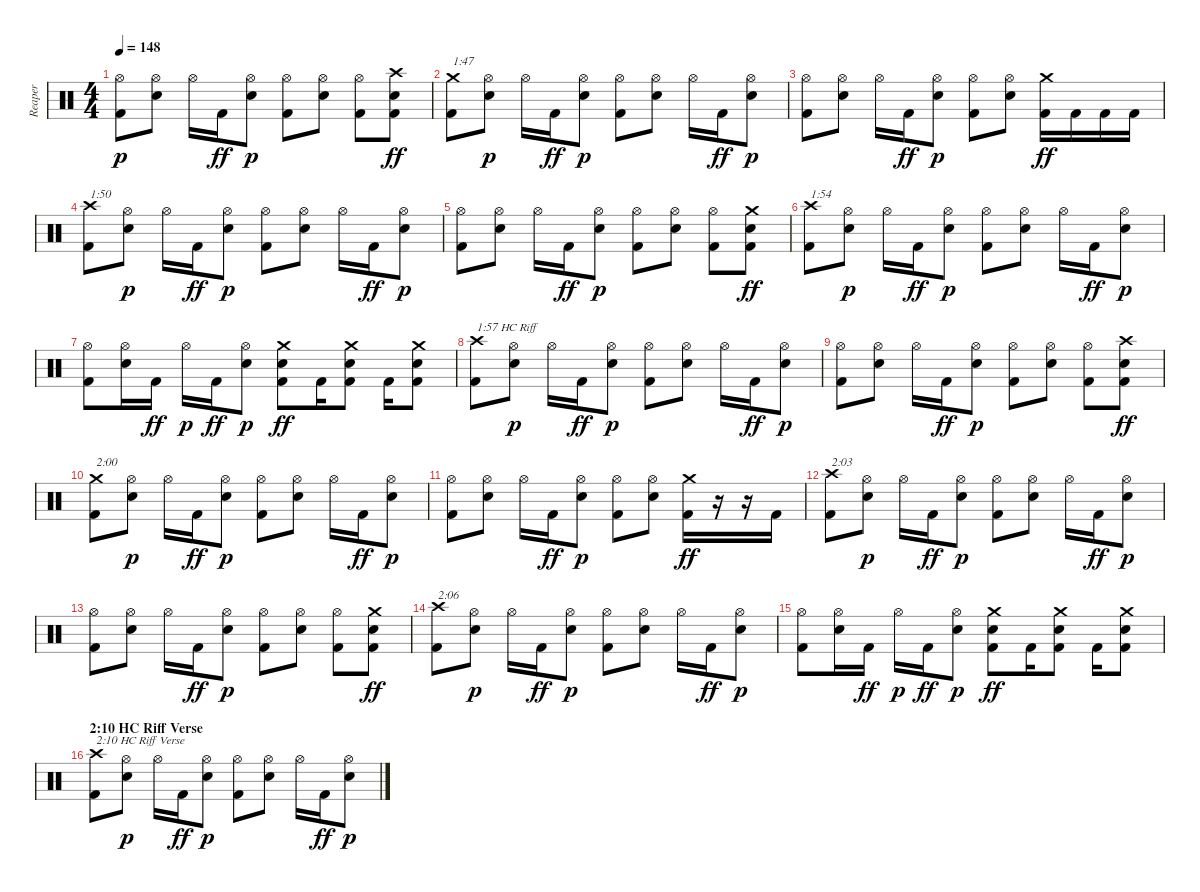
\track ("Reaper" "Reaper") {instrument percussion}
\staff {score}
\articulation defaults
\ts (4 4)
\tempo 148
\clef neutral
\ks c
("Kick (hit) 2" "Hi-Hat (open)").8{dy p} ("Electric Snare (hit)" "Hi-Hat (open)").8 "Hi-Hat (open)".16 "Kick (hit) 2".16{dy ff} ("Electric Snare (hit)" "Hi-Hat (open)").8{dy p} ("Kick (hit) 2" "Hi-Hat (open)").8 ("Electric Snare (hit)" "Hi-Hat (open)").8 ("Kick (hit) 2" "Hi-Hat (open)").8 ("Kick (hit) 2" "Electric Snare (hit)" "Crash high (hit)").8{dy ff} |
("Kick (hit) 2" "Crash medium (hit)").8{txt "1:47"} ("Electric Snare (hit)" "Hi-Hat (open)").8{dy p} "Hi-Hat (open)".16 "Kick (hit) 2".16{dy ff} ("Electric Snare (hit)" "Hi-Hat (open)").8{dy p} ("Kick (hit) 2" "Hi-Hat (open)").8 ("Electric Snare (hit)" "Hi-Hat (open)").8 "Hi-Hat (open)".16 "Kick (hit) 2".16{dy ff} ("Electric Snare (hit)" "Hi-Hat (open)").8{dy p} |
("Kick (hit) 2" "Hi-Hat (open)").8 ("Electric Snare (hit)" "Hi-Hat (open)").8 "Hi-Hat (open)".16 "Kick (hit) 2".16{dy ff} ("Electric Snare (hit)" "Hi-Hat (open)").8{dy p} ("Kick (hit) 2" "Hi-Hat (open)").8 ("Electric Snare (hit)" "Hi-Hat (open)").8 ("Kick (hit) 2" "Crash medium (hit)").16{dy ff} "Kick (hit) 2".16 "Kick (hit) 2".16 "Kick (hit) 2".16 |
("Kick (hit) 2" "Crash high (hit)").8{txt "1:50"} ("Electric Snare (hit)" "Hi-Hat (open)").8{dy p} "Hi-Hat (open)".16 "Kick (hit) 2".16{dy ff} ("Electric Snare (hit)" "Hi-Hat (open)").8{dy p} ("Kick (hit) 2" "Hi-Hat (open)").8 ("Electric Snare (hit)" "Hi-Hat (open)").8 "Hi-Hat (open)".16 "Kick (hit) 2".16{dy ff} ("Electric Snare (hit)" "Hi-Hat (open)").8{dy p} |
("Kick (hit) 2" "Hi-Hat (open)").8 ("Electric Snare (hit)" "Hi-Hat (open)").8 "Hi-Hat (open)".16 "Kick (hit) 2".16{dy ff} ("Electric Snare (hit)" "Hi-Hat (open)").8{dy p} ("Kick (hit) 2" "Hi-Hat (open)").8 ("Electric Snare (hit)" "Hi-Hat (open)").8 ("Kick (hit) 2" "Hi-Hat (open)").8 ("Kick (hit) 2" "Electric Snare (hit)" "Crash medium (hit)").8{dy ff} |
("Kick (hit) 2" "Crash high (hit)").8{txt "1:54"} ("Electric Snare (hit)" "Hi-Hat (open)").8{dy p} "Hi-Hat (open)".16 "Kick (hit) 2".16{dy ff} ("Electric Snare (hit)" "Hi-Hat (open)").8{dy p} ("Kick (hit) 2" "Hi-Hat (open)").8 ("Electric Snare (hit)" "Hi-Hat (open)").8 "Hi-Hat (open)".16 "Kick (hit) 2".16{dy ff} ("Electric Snare (hit)" "Hi-Hat (open)").8{dy p} |
("Kick (hit) 2" "Hi-Hat (open)").8 ("Electric Snare (hit)" "Hi-Hat (open)").16 "Kick (hit) 2".16{dy ff} "Hi-Hat (open)".16{dy p} "Kick (hit) 2".16{dy ff} ("Electric Snare (hit)" "Hi-Hat (open)").8{dy p} ("Kick (hit) 2" "Electric Snare (hit)" "Crash medium (hit)").8{dy ff} "Kick (hit) 2".16 ("Kick (hit) 2" "Electric Snare (hit)" "Crash medium (hit)").8 "Kick (hit) 2".16 ("Kick (hit) 2" "Electric Snare (hit)" "Crash medium (hit)").8 |
("Kick (hit) 2" "Crash high (hit)").8{txt "1:57 HC Riff"} ("Electric Snare (hit)" "Hi-Hat (open)").8{dy p} "Hi-Hat (open)".16 "Kick (hit) 2".16{dy ff} ("Electric Snare (hit)" "Hi-Hat (open)").8{dy p} ("Kick (hit) 2" "Hi-Hat (open)").8 ("Electric Snare (hit)" "Hi-Hat (open)").8 "Hi-Hat (open)".16 "Kick (hit) 2".16{dy ff} ("Electric Snare (hit)" "Hi-Hat (open)").8{dy p} |
("Kick (hit) 2" "Hi-Hat (open)").8 ("Electric Snare (hit)" "Hi-Hat (open)").8 "Hi-Hat (open)".16 "Kick (hit) 2".16{dy ff} ("Electric Snare (hit)" "Hi-Hat (open)").8{dy p} ("Kick (hit) 2" "Hi-Hat (open)").8 ("Electric Snare (hit)" "Hi-Hat (open)").8 ("Kick (hit) 2" "Hi-Hat (open)").8 ("Kick (hit) 2" "Electric Snare (hit)" "Crash high (hit)").8{dy ff} |
("Kick (hit) 2" "Crash medium (hit)").8{txt "2:00"} ("Electric Snare (hit)" "Hi-Hat (open)").8{dy p} "Hi-Hat (open)".16 "Kick (hit) 2".16{dy ff} ("Electric Snare (hit)" "Hi-Hat (open)").8{dy p} ("Kick (hit) 2" "Hi-Hat (open)").8 ("Electric Snare (hit)" "Hi-Hat (open)").8 "Hi-Hat (open)".16 "Kick (hit) 2".16{dy ff} ("Electric Snare (hit)" "Hi-Hat (open)").8{dy p} |
("Kick (hit) 2" "Hi-Hat (open)").8 ("Electric Snare (hit)" "Hi-Hat (open)").8 "Hi-Hat (open)".16 "Kick (hit) 2".16{dy ff} ("Electric Snare (hit)" "Hi-Hat (open)").8{dy p} ("Kick (hit) 2" "Hi-Hat (open)").8 ("Electric Snare (hit)" "Hi-Hat (open)").8 ("Kick (hit) 2" "Crash medium (hit)").16{dy ff} r.16 r.16 "Kick (hit) 2".16 |
("Kick (hit) 2" "Crash high (hit)").8{txt "2:03"} ("Electric Snare (hit)" "Hi-Hat (open)").8{dy p} "Hi-Hat (open)".16 "Kick (hit) 2".16{dy ff} ("Electric Snare (hit)" "Hi-Hat (open)").8{dy p} ("Kick (hit) 2" "Hi-Hat (open)").8 ("Electric Snare (hit)" "Hi-Hat (open)").8 "Hi-Hat (open)".16 "Kick (hit) 2".16{dy ff} ("Electric Snare (hit)" "Hi-Hat (open)").8{dy p} |
("Kick (hit) 2" "Hi-Hat (open)").8 ("Electric Snare (hit)" "Hi-Hat (open)").8 "Hi-Hat (open)".16 "Kick (hit) 2".16{dy ff} ("Electric Snare (hit)" "Hi-Hat (open)").8{dy p} ("Kick (hit) 2" "Hi-Hat (open)").8 ("Electric Snare (hit)" "Hi-Hat (open)").8 ("Kick (hit) 2" "Hi-Hat (open)").8 ("Kick (hit) 2" "Electric Snare (hit)" "Crash medium (hit)").8{dy ff} |
("Kick (hit) 2" "Crash high (hit)").8{txt "2:06"} ("Electric Snare (hit)" "Hi-Hat (open)").8{dy p} "Hi-Hat (open)".16 "Kick (hit) 2".16{dy ff} ("Electric Snare (hit)" "Hi-Hat (open)").8{dy p} ("Kick (hit) 2" "Hi-Hat (open)").8 ("Electric Snare (hit)" "Hi-Hat (open)").8 "Hi-Hat (open)".16 "Kick (hit) 2".16{dy ff} ("Electric Snare (hit)" "Hi-Hat (open)").8{dy p} |
("Kick (hit) 2" "Hi-Hat (open)").8 ("Electric Snare (hit)" "Hi-Hat (open)").16 "Kick (hit) 2".16{dy ff} "Hi-Hat (open)".16{dy p} "Kick (hit) 2".16{dy ff} ("Electric Snare (hit)" "Hi-Hat (open)").8{dy p} ("Kick (hit) 2" "Electric Snare (hit)" "Crash medium (hit)").8{dy ff} "Kick (hit) 2".16 ("Kick (hit) 2" "Electric Snare (hit)" "Crash medium (hit)").8 "Kick (hit) 2".16 ("Kick (hit) 2" "Electric Snare (hit)" "Crash medium (hit)").8 |
\section ("" "2:10 HC Riff Verse")
("Kick (hit) 2" "Crash high (hit)").8{txt "2:10 HC Riff Verse"} ("Electric Snare (hit)" "Hi-Hat (open)").8{dy p} "Hi-Hat (open)".16 "Kick (hit) 2".16{dy ff} ("Electric Snare (hit)" "Hi-Hat (open)").8{dy p} ("Kick (hit) 2" "Hi-Hat (open)").8 ("Electric Snare (hit)" "Hi-Hat (open)").8 "Hi-Hat (open)".16 "Kick (hit) 2".16{dy ff} ("Electric Snare (hit)" "Hi-Hat (open)").8{dy p}
